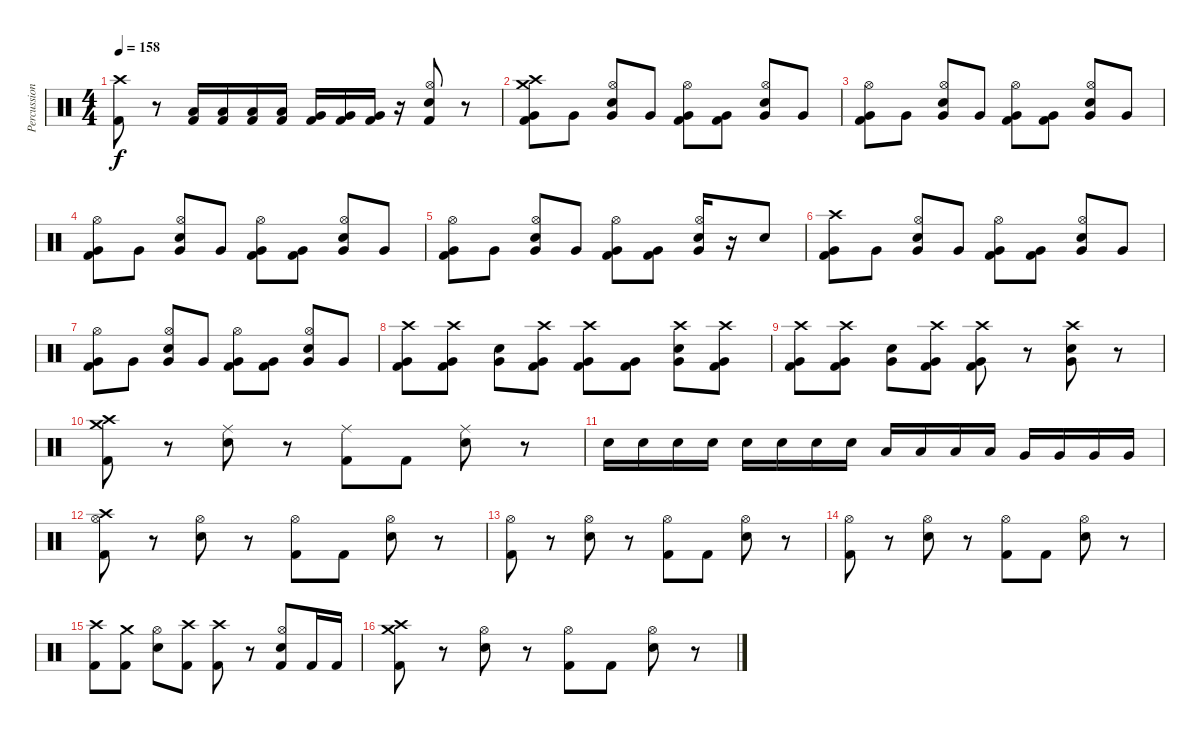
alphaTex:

\track ("Percussion" "Percussion") {instrument percussion}
\staff {score}
\articulation defaults
\ts (4 4)
\tempo 158
\clef neutral
\ks c
("Crash high (hit)" "Kick (hit) 2").8{dy f} r.8 ("Low Tom (hit)" "Kick (hit) 2").16 ("Low Tom (hit)" "Kick (hit) 2").16 ("Low Tom (hit)" "Kick (hit) 2").16 ("Low Tom (hit)" "Kick (hit) 2").16 ("Very Low Tom (hit)" "Kick (hit) 2").16 ("Very Low Tom (hit)" "Kick (hit) 2").16 ("Very Low Tom (hit)" "Kick (hit) 2").16 r.16 ("Hi-Hat (open)" "Snare (hit) 2" "Kick (hit) 2").8 r.8 |
("Crash high (hit)" "Crash medium (hit)" "Kick (hit) 2" "Very Low Tom (hit)").8 "Very Low Tom (hit)".8 ("Hi-Hat (open)" "Snare (hit) 2" "Very Low Tom (hit)").8 "Very Low Tom (hit)".8 ("Hi-Hat (open)" "Kick (hit) 2" "Very Low Tom (hit)").8 ("Kick (hit) 2" "Very Low Tom (hit)").8 ("Hi-Hat (open)" "Snare (hit) 2" "Very Low Tom (hit)").8 "Very Low Tom (hit)".8 |
("Hi-Hat (open)" "Kick (hit) 2" "Very Low Tom (hit)").8 "Very Low Tom (hit)".8 ("Hi-Hat (open)" "Snare (hit) 2" "Very Low Tom (hit)").8 "Very Low Tom (hit)".8 ("Hi-Hat (open)" "Kick (hit) 2" "Very Low Tom (hit)").8 ("Kick (hit) 2" "Very Low Tom (hit)").8 ("Hi-Hat (open)" "Snare (hit) 2" "Very Low Tom (hit)").8 "Very Low Tom (hit)".8 |
("Hi-Hat (open)" "Kick (hit) 2" "Very Low Tom (hit)").8 "Very Low Tom (hit)".8 ("Hi-Hat (open)" "Snare (hit) 2" "Very Low Tom (hit)").8 "Very Low Tom (hit)".8 ("Hi-Hat (open)" "Kick (hit) 2" "Very Low Tom (hit)").8 ("Kick (hit) 2" "Very Low Tom (hit)").8 ("Hi-Hat (open)" "Snare (hit) 2" "Very Low Tom (hit)").8 "Very Low Tom (hit)".8 |
("Hi-Hat (open)" "Kick (hit) 2" "Very Low Tom (hit)").8 "Very Low Tom (hit)".8 ("Hi-Hat (open)" "Snare (hit) 2" "Very Low Tom (hit)").8 "Very Low Tom (hit)".8 ("Hi-Hat (open)" "Kick (hit) 2" "Very Low Tom (hit)").8 ("Kick (hit) 2" "Very Low Tom (hit)").8 ("Hi-Hat (open)" "Snare (hit) 2" "Very Low Tom (hit)").16 r.16 "Snare (hit) 2".8 |
("Crash high (hit)" "Kick (hit) 2" "Very Low Tom (hit)").8 "Very Low Tom (hit)".8 ("Hi-Hat (open)" "Snare (hit) 2" "Very Low Tom (hit)").8 "Very Low Tom (hit)".8 ("Hi-Hat (open)" "Kick (hit) 2" "Very Low Tom (hit)").8 ("Kick (hit) 2" "Very Low Tom (hit)").8 ("Hi-Hat (open)" "Snare (hit) 2" "Very Low Tom (hit)").8 "Very Low Tom (hit)".8 |
("Hi-Hat (open)" "Kick (hit) 2" "Very Low Tom (hit)").8 "Very Low Tom (hit)".8 ("Hi-Hat (open)" "Snare (hit) 2" "Very Low Tom (hit)").8 "Very Low Tom (hit)".8 ("Hi-Hat (open)" "Kick (hit) 2" "Very Low Tom (hit)").8 ("Kick (hit) 2" "Very Low Tom (hit)").8 ("Hi-Hat (open)" "Snare (hit) 2" "Very Low Tom (hit)").8 "Very Low Tom (hit)".8 |
("Crash high (hit)" "Kick (hit) 2" "Very Low Tom (hit)").8 ("Crash high (hit)" "Kick (hit) 2" "Very Low Tom (hit)").8 ("Snare (hit) 2" "Very Low Tom (hit)").8 ("Crash high (hit)" "Kick (hit) 2" "Very Low Tom (hit)").8 ("Crash high (hit)" "Kick (hit) 2" "Very Low Tom (hit)").8 ("Kick (hit) 2" "Very Low Tom (hit)").8 ("Crash high (hit)" "Snare (hit) 2" "Very Low Tom (hit)").8 ("Crash high (hit)" "Kick (hit) 2" "Very Low Tom (hit)").8 |
("Crash high (hit)" "Kick (hit) 2" "Very Low Tom (hit)").8 ("Crash high (hit)" "Kick (hit) 2" "Very Low Tom (hit)").8 ("Snare (hit) 2" "Very Low Tom (hit)").8 ("Crash high (hit)" "Kick (hit) 2" "Very Low Tom (hit)").8 ("Crash high (hit)" "Kick (hit) 2" "Very Low Tom (hit)").8 r.8 ("Crash high (hit)" "Snare (hit) 2" "Very Low Tom (hit)").8 r.8 |
("Crash high (hit)" "Crash medium (hit)" "Kick (hit) 2").8 r.8 ("Ride (middle)" "Snare (hit) 2").8 r.8 ("Ride (middle)" "Kick (hit) 2").8 "Kick (hit) 2".8 ("Ride (middle)" "Snare (hit) 2").8 r.8 |
"Snare (hit) 2".16 "Snare (hit) 2".16 "Snare (hit) 2".16 "Snare (hit) 2".16 "Snare (hit) 2".16 "Snare (hit) 2".16 "Snare (hit) 2".16 "Snare (hit) 2".16 "Low Tom (hit)".16 "Low Tom (hit)".16 "Low Tom (hit)".16 "Low Tom (hit)".16 "Very Low Tom (hit)".16 "Very Low Tom (hit)".16 "Very Low Tom (hit)".16 "Very Low Tom (hit)".16 |
("Crash high (hit)" "Hi-Hat (open)" "Kick (hit) 2").8 r.8 ("Hi-Hat (open)" "Snare (hit) 2").8 r.8 ("Hi-Hat (open)" "Kick (hit) 2").8 "Kick (hit) 2".8 ("Hi-Hat (open)" "Snare (hit) 2").8 r.8 |
("Hi-Hat (open)" "Kick (hit) 2").8 r.8 ("Hi-Hat (open)" "Snare (hit) 2").8 r.8 ("Hi-Hat (open)" "Kick (hit) 2").8 "Kick (hit) 2".8 ("Hi-Hat (open)" "Snare (hit) 2").8 r.8 |
("Hi-Hat (open)" "Kick (hit) 2").8 r.8 ("Hi-Hat (open)" "Snare (hit) 2").8 r.8 ("Hi-Hat (open)" "Kick (hit) 2").8 "Kick (hit) 2".8 ("Hi-Hat (open)" "Snare (hit) 2").8 r.8 |
("Crash high (hit)" "Kick (hit) 2").8 ("Crash medium (hit)" "Kick (hit) 2").8 ("Hi-Hat (open)" "Snare (hit) 2").8 ("Crash high (hit)" "Kick (hit) 2").8 ("Crash high (hit)" "Kick (hit) 2").8 r.8 ("Hi-Hat (open)" "Snare (hit) 2" "Kick (hit) 2").8 "Kick (hit) 2".16 "Kick (hit) 2".16 |
("Crash medium (hit)" "Crash high (hit)" "Kick (hit) 2").8 r.8 ("Hi-Hat (open)" "Snare (hit) 2").8 r.8 ("Hi-Hat (open)" "Kick (hit) 2").8 "Kick (hit) 2".8 ("Hi-Hat (open)" "Snare (hit) 2").8 r.8
